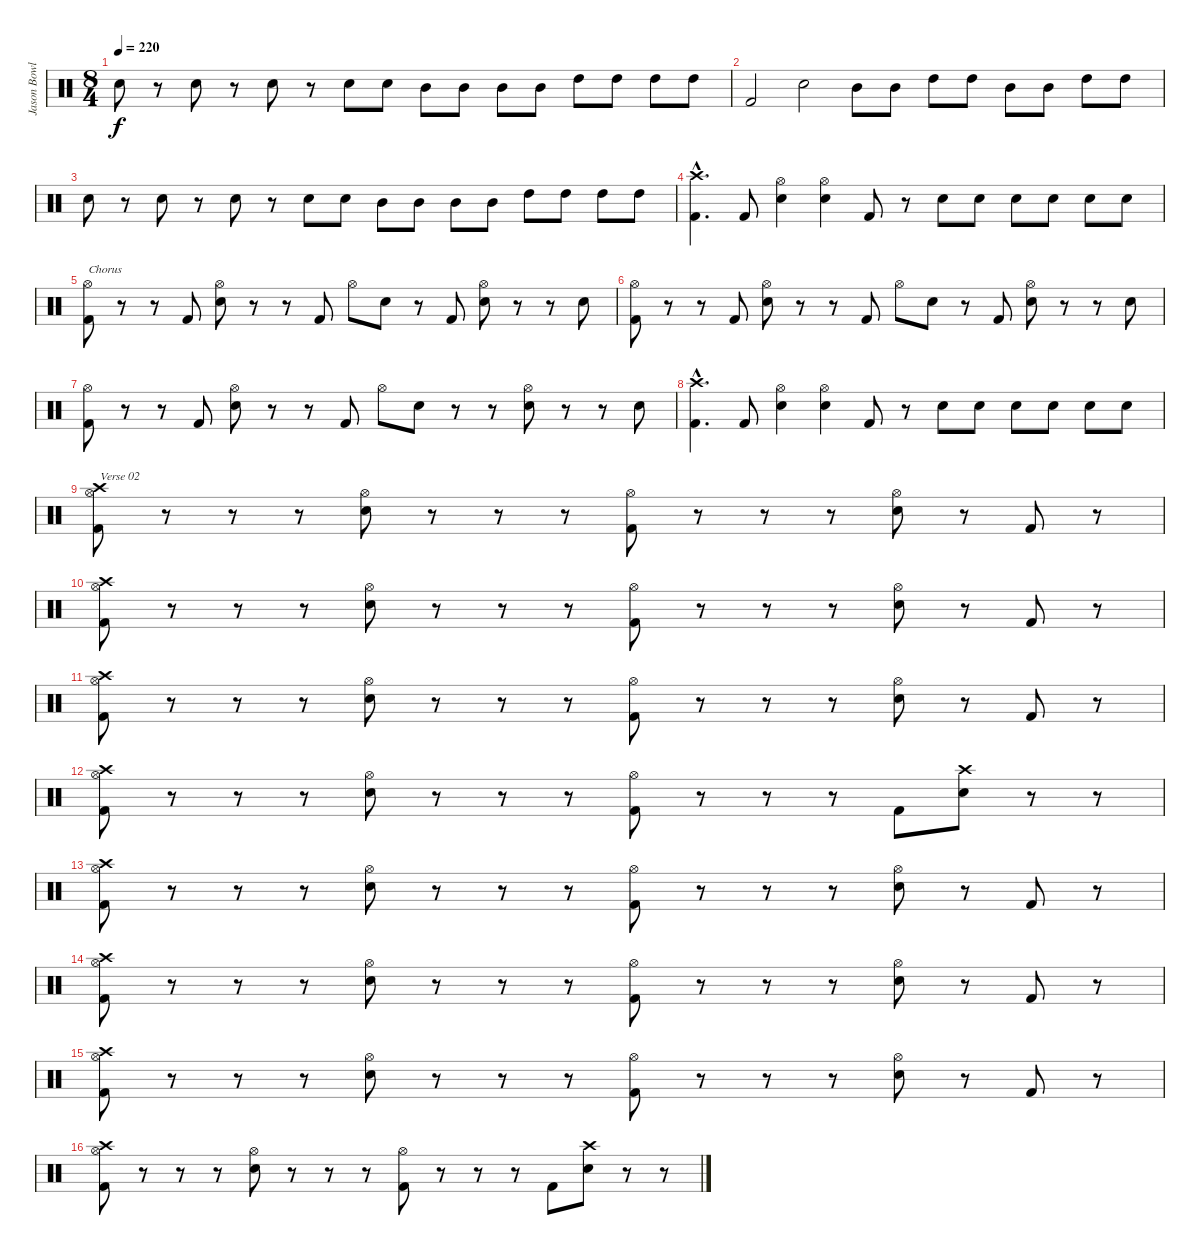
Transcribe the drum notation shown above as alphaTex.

\track ("Jason Bowld" "Jason Bowl") {instrument percussion}
\staff {score}
\articulation defaults
\ts (8 4)
\tempo 220
\clef neutral
\ks c "Snare (hit) 2".8{dy f}
r.8 "Snare (hit) 2".8 r.8 "Snare (hit) 2".8 r.8 "Snare (hit) 2".8 "Snare (hit) 2".8 "Mid Tom (hit)".8 "Mid Tom (hit)".8 "Mid Tom (hit)".8 "Mid Tom (hit)".8 "High Tom (hit)".8 "High Tom (hit)".8 "High Tom (hit)".8 "High Tom (hit)".8 |
"Kick (hit) 2".2 "Snare (hit) 2".2 "Mid Tom (hit)".8 "Mid Tom (hit)".8 "High Tom (hit)".8 "High Tom (hit)".8 "Mid Tom (hit)".8 "Mid Tom (hit)".8 "High Tom (hit)".8 "High Tom (hit)".8 |
"Snare (hit) 2".8 r.8 "Snare (hit) 2".8 r.8 "Snare (hit) 2".8 r.8 "Snare (hit) 2".8 "Snare (hit) 2".8 "Mid Tom (hit)".8 "Mid Tom (hit)".8 "Mid Tom (hit)".8 "Mid Tom (hit)".8 "High Tom (hit)".8 "High Tom (hit)".8 "High Tom (hit)".8 "High Tom (hit)".8 |
("Crash high (hit)"{hac} "Kick (hit) 2"{hac}).4{d} "Kick (hit) 2".8 ("Hi-Hat (open)" "Snare (hit) 2").4 ("Hi-Hat (open)" "Snare (hit) 2").4 "Kick (hit) 2".8 r.8 "Snare (hit) 2".8 "Snare (hit) 2".8 "Snare (hit) 2".8 "Snare (hit) 2".8 "Snare (hit) 2".8 "Snare (hit) 2".8 |
("Hi-Hat (open)" "Kick (hit) 2").8{txt "Chorus"} r.8 r.8 "Kick (hit) 2".8 ("Hi-Hat (open)" "Snare (hit) 2").8 r.8 r.8 "Kick (hit) 2".8 "Hi-Hat (open)".8 "Snare (hit) 2".8 r.8 "Kick (hit) 2".8 ("Hi-Hat (open)" "Snare (hit) 2").8 r.8 r.8 "Snare (hit) 2".8 |
("Hi-Hat (open)" "Kick (hit) 2").8 r.8 r.8 "Kick (hit) 2".8 ("Hi-Hat (open)" "Snare (hit) 2").8 r.8 r.8 "Kick (hit) 2".8 "Hi-Hat (open)".8 "Snare (hit) 2".8 r.8 "Kick (hit) 2".8 ("Hi-Hat (open)" "Snare (hit) 2").8 r.8 r.8 "Snare (hit) 2".8 |
("Hi-Hat (open)" "Kick (hit) 2").8 r.8 r.8 "Kick (hit) 2".8 ("Hi-Hat (open)" "Snare (hit) 2").8 r.8 r.8 "Kick (hit) 2".8 "Hi-Hat (open)".8 "Snare (hit) 2".8 r.8 r.8 ("Hi-Hat (open)" "Snare (hit) 2").8 r.8 r.8 "Snare (hit) 2".8 |
("Crash high (hit)"{hac} "Kick (hit) 2"{hac}).4{d} "Kick (hit) 2".8 ("Hi-Hat (open)" "Snare (hit) 2").4 ("Hi-Hat (open)" "Snare (hit) 2").4 "Kick (hit) 2".8 r.8 "Snare (hit) 2".8 "Snare (hit) 2".8 "Snare (hit) 2".8 "Snare (hit) 2".8 "Snare (hit) 2".8 "Snare (hit) 2".8 |
("Hi-Hat (open)" "Kick (hit) 2" "Crash high (hit)").8{txt "Verse 02"} r.8 r.8 r.8 ("Hi-Hat (open)" "Snare (hit) 2").8 r.8 r.8 r.8 ("Hi-Hat (open)" "Kick (hit) 2").8 r.8 r.8 r.8 ("Hi-Hat (open)" "Snare (hit) 2").8 r.8 "Kick (hit) 2".8 r.8 |
("Hi-Hat (open)" "Kick (hit) 2" "Crash high (hit)").8 r.8 r.8 r.8 ("Hi-Hat (open)" "Snare (hit) 2").8 r.8 r.8 r.8 ("Hi-Hat (open)" "Kick (hit) 2").8 r.8 r.8 r.8 ("Hi-Hat (open)" "Snare (hit) 2").8 r.8 "Kick (hit) 2".8 r.8 |
("Hi-Hat (open)" "Kick (hit) 2" "Crash high (hit)").8 r.8 r.8 r.8 ("Hi-Hat (open)" "Snare (hit) 2").8 r.8 r.8 r.8 ("Hi-Hat (open)" "Kick (hit) 2").8 r.8 r.8 r.8 ("Hi-Hat (open)" "Snare (hit) 2").8 r.8 "Kick (hit) 2".8 r.8 |
("Hi-Hat (open)" "Kick (hit) 2" "Crash high (hit)").8 r.8 r.8 r.8 ("Hi-Hat (open)" "Snare (hit) 2").8 r.8 r.8 r.8 ("Hi-Hat (open)" "Kick (hit) 2").8 r.8 r.8 r.8 "Kick (hit) 2".8 ("Snare (hit) 2" "Crash high (hit)").8 r.8 r.8 |
("Hi-Hat (open)" "Kick (hit) 2" "Crash high (hit)").8 r.8 r.8 r.8 ("Hi-Hat (open)" "Snare (hit) 2").8 r.8 r.8 r.8 ("Hi-Hat (open)" "Kick (hit) 2").8 r.8 r.8 r.8 ("Hi-Hat (open)" "Snare (hit) 2").8 r.8 "Kick (hit) 2".8 r.8 |
("Hi-Hat (open)" "Kick (hit) 2" "Crash high (hit)").8 r.8 r.8 r.8 ("Hi-Hat (open)" "Snare (hit) 2").8 r.8 r.8 r.8 ("Hi-Hat (open)" "Kick (hit) 2").8 r.8 r.8 r.8 ("Hi-Hat (open)" "Snare (hit) 2").8 r.8 "Kick (hit) 2".8 r.8 |
("Hi-Hat (open)" "Kick (hit) 2" "Crash high (hit)").8 r.8 r.8 r.8 ("Hi-Hat (open)" "Snare (hit) 2").8 r.8 r.8 r.8 ("Hi-Hat (open)" "Kick (hit) 2").8 r.8 r.8 r.8 ("Hi-Hat (open)" "Snare (hit) 2").8 r.8 "Kick (hit) 2".8 r.8 |
("Hi-Hat (open)" "Kick (hit) 2" "Crash high (hit)").8 r.8 r.8 r.8 ("Hi-Hat (open)" "Snare (hit) 2").8 r.8 r.8 r.8 ("Hi-Hat (open)" "Kick (hit) 2").8 r.8 r.8 r.8 "Kick (hit) 2".8 ("Snare (hit) 2" "Crash high (hit)").8 r.8 r.8
